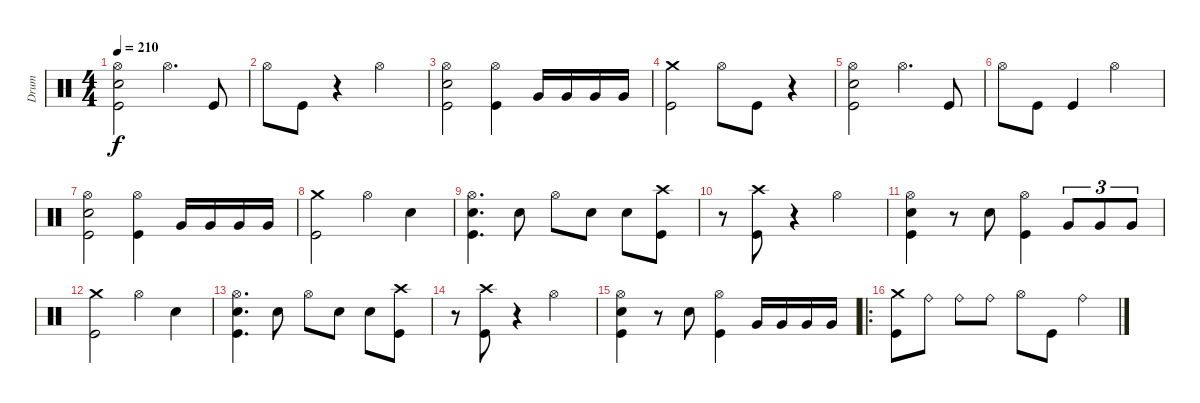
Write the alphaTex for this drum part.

\track ("Drum" "Drum") {instrument percussion}
\staff {score}
\articulation defaults
\ts (4 4)
\tempo 210
\clef neutral
\ks c
("Hi-Hat (open)" "Snare (hit) 2" "Kick (hit)").2{dy f} "Hi-Hat (open)".4{d} "Kick (hit)".8 |
"Hi-Hat (open)".8 "Kick (hit)".8 r.4 "Hi-Hat (open)".2 |
("Hi-Hat (open)" "Snare (hit) 2" "Kick (hit)").2 ("Hi-Hat (open)" "Kick (hit)").4 "Very Low Tom (hit)".16 "Very Low Tom (hit)".16 "Very Low Tom (hit)".16 "Very Low Tom (hit)".16 |
("Crash medium (hit)" "Kick (hit)").2 "Hi-Hat (open)".8 "Kick (hit)".8 r.4 |
("Hi-Hat (open)" "Snare (hit) 2" "Kick (hit)").2 "Hi-Hat (open)".4{d} "Kick (hit)".8 |
"Hi-Hat (open)".8 "Kick (hit)".8 "Kick (hit)".4 "Hi-Hat (open)".2 |
("Hi-Hat (open)" "Snare (hit) 2" "Kick (hit)").2 ("Hi-Hat (open)" "Kick (hit)").4 "Very Low Tom (hit)".16 "Very Low Tom (hit)".16 "Very Low Tom (hit)".16 "Very Low Tom (hit)".16 |
("Crash medium (hit)" "Kick (hit)").2 "Hi-Hat (open)".4 "Snare (hit) 2".4 |
("Hi-Hat (open)" "Snare (hit) 2" "Kick (hit)").4{d} "Snare (hit) 2".8 "Hi-Hat (open)".8 "Snare (hit) 2".8 "Snare (hit) 2".8 ("Crash high (hit)" "Kick (hit)").8 |
r.8 ("Crash high (hit)" "Kick (hit)").8 r.4 "Hi-Hat (open)".2 |
("Hi-Hat (open)" "Snare (hit) 2" "Kick (hit)").4 r.8 "Snare (hit) 2".8 ("Hi-Hat (open)" "Kick (hit)").4 "Very Low Tom (hit)".8{tu (3 2)} "Very Low Tom (hit)".8{tu (3 2)} "Very Low Tom (hit)".8{tu (3 2)} |
("Crash medium (hit)" "Kick (hit)").2 "Hi-Hat (open)".4 "Snare (hit) 2".4 |
("Hi-Hat (open)" "Snare (hit) 2" "Kick (hit)").4{d} "Snare (hit) 2".8 "Hi-Hat (open)".8 "Snare (hit) 2".8 "Snare (hit) 2".8 ("Crash high (hit)" "Kick (hit)").8 |
r.8 ("Crash high (hit)" "Kick (hit)").8 r.4 "Hi-Hat (open)".2 |
("Hi-Hat (open)" "Snare (hit) 2" "Kick (hit)").4 r.8 "Snare (hit) 2".8 ("Hi-Hat (open)" "Kick (hit)").4 "Very Low Tom (hit)".16 "Very Low Tom (hit)".16 "Very Low Tom (hit)".16 "Very Low Tom (hit)".16 |
\ro
("Crash medium (hit)" "Kick (hit)").8 "Ride (bell)".8 "Ride (bell)".8 "Ride (bell)".8 "Hi-Hat (open)".8 "Kick (hit)".8 "Ride (bell)".4
